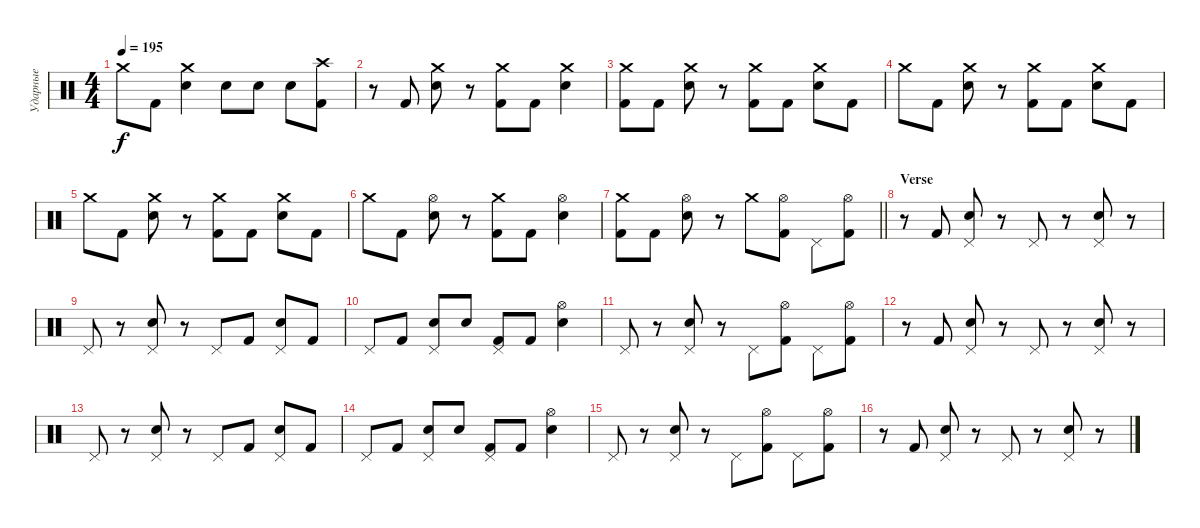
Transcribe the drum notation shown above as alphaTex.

\track ("Ударные" "Ударные") {instrument percussion}
\staff {score}
\articulation defaults
\ts (4 4)
\tempo 195
\clef neutral
\ks c "Crash medium (hit)".8{dy f} "Kick (hit) 2".8
("Crash medium (hit)" "Electric Snare (hit)").4 "Electric Snare (hit)".8 "Electric Snare (hit)".8 "Electric Snare (hit)".8 ("Crash high (hit)" "Kick (hit) 2").8 |
r.8 "Kick (hit) 2".8 ("Crash medium (hit)" "Electric Snare (hit)").8 r.8 ("Crash medium (hit)" "Kick (hit) 2").8 "Kick (hit) 2".8 ("Crash medium (hit)" "Electric Snare (hit)").4 |
("Crash medium (hit)" "Kick (hit) 2").8 "Kick (hit) 2".8 ("Crash medium (hit)" "Electric Snare (hit)").8 r.8 ("Crash medium (hit)" "Kick (hit) 2").8 "Kick (hit) 2".8 ("Crash medium (hit)" "Electric Snare (hit)").8 "Kick (hit) 2".8 |
"Crash medium (hit)".8 "Kick (hit) 2".8 ("Crash medium (hit)" "Electric Snare (hit)").8 r.8 ("Crash medium (hit)" "Kick (hit) 2").8 "Kick (hit) 2".8 ("Crash medium (hit)" "Electric Snare (hit)").8 "Kick (hit) 2".8 |
"Crash medium (hit)".8 "Kick (hit) 2".8 ("Crash medium (hit)" "Electric Snare (hit)").8 r.8 ("Crash medium (hit)" "Kick (hit) 2").8 "Kick (hit) 2".8 ("Crash medium (hit)" "Electric Snare (hit)").8 "Kick (hit) 2".8 |
"Crash medium (hit)".8 "Kick (hit) 2".8 ("Hi-Hat (open)" "Electric Snare (hit)").8 r.8 ("Crash medium (hit)" "Kick (hit) 2").8 "Kick (hit) 2".8 ("Hi-Hat (open)" "Electric Snare (hit)").4 |
\barLineRight lightlight
("Crash medium (hit)" "Kick (hit) 2").8 "Kick (hit) 2".8 ("Hi-Hat (open)" "Electric Snare (hit)").8 r.8 "Crash medium (hit)".8 ("Hi-Hat (open)" "Kick (hit) 2").8 "Pedal Hi-Hat (hit)".8 ("Hi-Hat (open)" "Kick (hit) 2").8 |
\section ("" "Verse")
r.8 "Kick (hit) 2".8 ("Pedal Hi-Hat (hit)" "Electric Snare (hit)").8 r.8 "Pedal Hi-Hat (hit)".8 r.8 ("Pedal Hi-Hat (hit)" "Electric Snare (hit)").8 r.8 |
"Pedal Hi-Hat (hit)".8 r.8 ("Pedal Hi-Hat (hit)" "Electric Snare (hit)").8 r.8 "Pedal Hi-Hat (hit)".8 "Kick (hit) 2".8 ("Pedal Hi-Hat (hit)" "Electric Snare (hit)").8 "Kick (hit) 2".8 |
"Pedal Hi-Hat (hit)".8 "Kick (hit) 2".8 ("Pedal Hi-Hat (hit)" "Electric Snare (hit)").8 "Electric Snare (hit)".8 ("Pedal Hi-Hat (hit)" "Kick (hit) 2").8 "Kick (hit) 2".8 ("Hi-Hat (open)" "Electric Snare (hit)").4 |
"Pedal Hi-Hat (hit)".8 r.8 ("Pedal Hi-Hat (hit)" "Electric Snare (hit)").8 r.8 "Pedal Hi-Hat (hit)".8 ("Hi-Hat (open)" "Kick (hit) 2").8 "Pedal Hi-Hat (hit)".8 ("Hi-Hat (open)" "Kick (hit) 2").8 |
r.8 "Kick (hit) 2".8 ("Pedal Hi-Hat (hit)" "Electric Snare (hit)").8 r.8 "Pedal Hi-Hat (hit)".8 r.8 ("Pedal Hi-Hat (hit)" "Electric Snare (hit)").8 r.8 |
"Pedal Hi-Hat (hit)".8 r.8 ("Pedal Hi-Hat (hit)" "Electric Snare (hit)").8 r.8 "Pedal Hi-Hat (hit)".8 "Kick (hit) 2".8 ("Pedal Hi-Hat (hit)" "Electric Snare (hit)").8 "Kick (hit) 2".8 |
"Pedal Hi-Hat (hit)".8 "Kick (hit) 2".8 ("Pedal Hi-Hat (hit)" "Electric Snare (hit)").8 "Electric Snare (hit)".8 ("Pedal Hi-Hat (hit)" "Kick (hit) 2").8 "Kick (hit) 2".8 ("Hi-Hat (open)" "Electric Snare (hit)").4 |
"Pedal Hi-Hat (hit)".8 r.8 ("Pedal Hi-Hat (hit)" "Electric Snare (hit)").8 r.8 "Pedal Hi-Hat (hit)".8 ("Hi-Hat (open)" "Kick (hit) 2").8 "Pedal Hi-Hat (hit)".8 ("Hi-Hat (open)" "Kick (hit) 2").8 |
r.8 "Kick (hit) 2".8 ("Pedal Hi-Hat (hit)" "Electric Snare (hit)").8 r.8 "Pedal Hi-Hat (hit)".8 r.8 ("Pedal Hi-Hat (hit)" "Electric Snare (hit)").8 r.8
